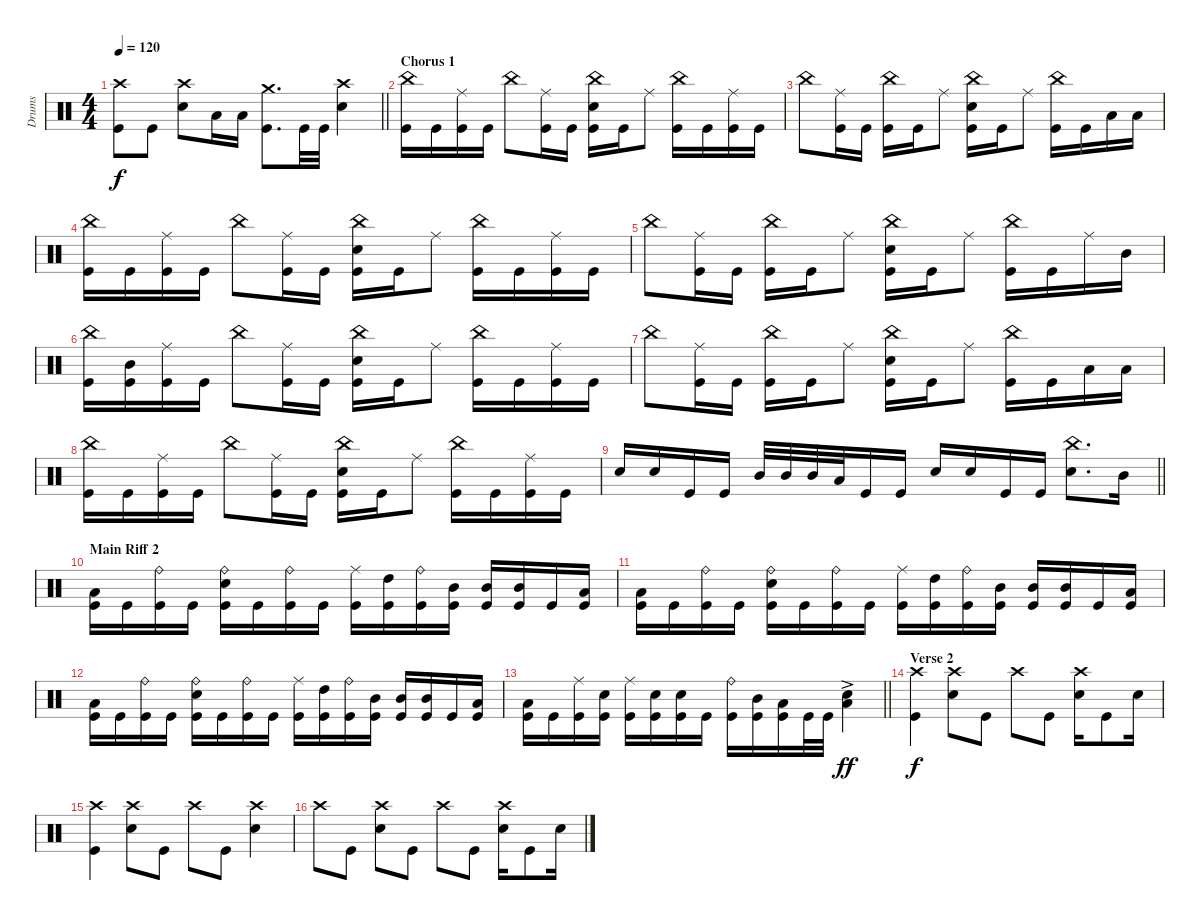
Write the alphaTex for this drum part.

\track ("Drums" "Drums") {instrument percussion}
\staff {score}
\articulation defaults
\ts (4 4)
\tempo 120
\clef neutral
\barLineRight lightlight
\ks c
("Crash high (hit)" "Kick (hit)").8{dy f} "Kick (hit)".8 ("Crash high (hit)" "Electric Snare (hit)").8 "Low Tom (hit)".16 "Low Tom (hit)".16 ("Crash medium (hit)" "Kick (hit)").8{d} "Kick (hit)".32 "Kick (hit)".32 ("Crash high (hit)" "Electric Snare (hit)").4 |
\section ("" "Chorus 1")
("China (hit)" "Kick (hit)").16 "Kick (hit)".16 ("Ride (middle)" "Kick (hit)").16 "Kick (hit)".16 "China (hit)".8 ("Ride (middle)" "Kick (hit)").16 "Kick (hit)".16 ("China (hit)" "Electric Snare (hit)" "Kick (hit)").16 "Kick (hit)".16 "Ride (middle)".8 ("China (hit)" "Kick (hit)").16 "Kick (hit)".16 ("Ride (middle)" "Kick (hit)").16 "Kick (hit)".16 |
"China (hit)".8 ("Ride (middle)" "Kick (hit)").16 "Kick (hit)".16 ("China (hit)" "Kick (hit)").16 "Kick (hit)".16 "Ride (middle)".8 ("China (hit)" "Electric Snare (hit)" "Kick (hit)").16 "Kick (hit)".16 "Ride (middle)".8 ("China (hit)" "Kick (hit)").16 "Kick (hit)".16 "Low Tom (hit)".16 "Low Tom (hit)".16 |
("China (hit)" "Kick (hit)").16 "Kick (hit)".16 ("Ride (middle)" "Kick (hit)").16 "Kick (hit)".16 "China (hit)".8 ("Ride (middle)" "Kick (hit)").16 "Kick (hit)".16 ("China (hit)" "Electric Snare (hit)" "Kick (hit)").16 "Kick (hit)".16 "Ride (middle)".8 ("China (hit)" "Kick (hit)").16 "Kick (hit)".16 ("Ride (middle)" "Kick (hit)").16 "Kick (hit)".16 |
"China (hit)".8 ("Ride (middle)" "Kick (hit)").16 "Kick (hit)".16 ("China (hit)" "Kick (hit)").16 "Kick (hit)".16 "Ride (middle)".8 ("China (hit)" "Electric Snare (hit)" "Kick (hit)").16 "Kick (hit)".16 "Ride (middle)".8 ("China (hit)" "Kick (hit)").16 "Kick (hit)".16 "Ride (middle)".16 "Mid Tom (hit)".16 |
("China (hit)" "Kick (hit)").16 ("Mid Tom (hit)" "Kick (hit)").16 ("Ride (middle)" "Kick (hit)").16 "Kick (hit)".16 "China (hit)".8 ("Ride (middle)" "Kick (hit)").16 "Kick (hit)".16 ("China (hit)" "Electric Snare (hit)" "Kick (hit)").16 "Kick (hit)".16 "Ride (middle)".8 ("China (hit)" "Kick (hit)").16 "Kick (hit)".16 ("Ride (middle)" "Kick (hit)").16 "Kick (hit)".16 |
"China (hit)".8 ("Ride (middle)" "Kick (hit)").16 "Kick (hit)".16 ("China (hit)" "Kick (hit)").16 "Kick (hit)".16 "Ride (middle)".8 ("China (hit)" "Electric Snare (hit)" "Kick (hit)").16 "Kick (hit)".16 "Ride (middle)".8 ("China (hit)" "Kick (hit)").16 "Kick (hit)".16 "Low Tom (hit)".16 "Low Tom (hit)".16 |
("China (hit)" "Kick (hit)").16 "Kick (hit)".16 ("Ride (middle)" "Kick (hit)").16 "Kick (hit)".16 "China (hit)".8 ("Ride (middle)" "Kick (hit)").16 "Kick (hit)".16 ("China (hit)" "Electric Snare (hit)" "Kick (hit)").16 "Kick (hit)".16 "Ride (middle)".8 ("China (hit)" "Kick (hit)").16 "Kick (hit)".16 ("Ride (middle)" "Kick (hit)").16 "Kick (hit)".16 |
\barLineRight lightlight "Electric Snare (hit)".16 "Electric Snare (hit)".16 "Kick (hit)".16 "Kick (hit)".16 "Mid Tom (hit)".32 "Mid Tom (hit)".32 "Mid Tom (hit)".32 "Low Tom (hit)".32 "Kick (hit)".16 "Kick (hit)".16 "Electric Snare (hit)".16 "Electric Snare (hit)".16 "Kick (hit)".16 "Kick (hit)".16
("China (hit)" "Electric Snare (hit)").8{d} "Mid Tom (hit)".16 |
\section ("" "Main Riff 2")
("Low Tom (hit)" "Kick (hit)").16 "Kick (hit)".16 ("Ride (bell)" "Kick (hit)").16 "Kick (hit)".16 ("Ride (bell)" "Electric Snare (hit)" "Kick (hit)").16 "Kick (hit)".16 ("Ride (bell)" "Kick (hit)").16 "Kick (hit)".16 ("Ride (middle)" "Kick (hit)").16 ("High Tom (hit)" "Kick (hit)").16 ("Ride (bell)" "Kick (hit)").16 ("Mid Tom (hit)" "Kick (hit)").16 ("Mid Tom (hit)" "Kick (hit)").16 ("Mid Tom (hit)" "Kick (hit)").16 "Kick (hit)".16 ("Low Tom (hit)" "Kick (hit)").16 |
("Low Tom (hit)" "Kick (hit)").16 "Kick (hit)".16 ("Ride (bell)" "Kick (hit)").16 "Kick (hit)".16 ("Ride (bell)" "Electric Snare (hit)" "Kick (hit)").16 "Kick (hit)".16 ("Ride (bell)" "Kick (hit)").16 "Kick (hit)".16 ("Ride (middle)" "Kick (hit)").16 ("High Tom (hit)" "Kick (hit)").16 ("Ride (bell)" "Kick (hit)").16 ("Mid Tom (hit)" "Kick (hit)").16 ("Mid Tom (hit)" "Kick (hit)").16 ("Mid Tom (hit)" "Kick (hit)").16 "Kick (hit)".16 ("Low Tom (hit)" "Kick (hit)").16 |
("Low Tom (hit)" "Kick (hit)").16 "Kick (hit)".16 ("Ride (bell)" "Kick (hit)").16 "Kick (hit)".16 ("Ride (bell)" "Electric Snare (hit)" "Kick (hit)").16 "Kick (hit)".16 ("Ride (bell)" "Kick (hit)").16 "Kick (hit)".16 ("Ride (middle)" "Kick (hit)").16 ("High Tom (hit)" "Kick (hit)").16 ("Ride (bell)" "Kick (hit)").16 ("Mid Tom (hit)" "Kick (hit)").16 ("Mid Tom (hit)" "Kick (hit)").16 ("Mid Tom (hit)" "Kick (hit)").16 "Kick (hit)".16 ("Low Tom (hit)" "Kick (hit)").16 |
\barLineRight lightlight
("Low Tom (hit)" "Kick (hit)").16 "Kick (hit)".16 ("Ride (middle)" "Kick (hit)").16 ("Electric Snare (hit)" "Kick (hit)").16 ("Ride (middle)" "Kick (hit)").16 ("Electric Snare (hit)" "Kick (hit)").16 ("Electric Snare (hit)" "Kick (hit)").16 "Kick (hit)".16 ("Ride (bell)" "Kick (hit)").16 ("Mid Tom (hit)" "Kick (hit)").16 ("Low Tom (hit)" "Kick (hit)").16 "Kick (hit)".32 "Kick (hit)".32 ("Electric Snare (hit)"{ac} "Low Tom (hit)").4{dy ff} |
\section ("" "Verse 2")
("Crash high (hit)" "Kick (hit)").4{dy f} ("Crash high (hit)" "Electric Snare (hit)").8 "Kick (hit)".8 "Crash high (hit)".8 "Kick (hit)".8 ("Crash high (hit)" "Electric Snare (hit)").16 "Kick (hit)".8 "Electric Snare (hit)".16 |
("Crash high (hit)" "Kick (hit)").4 ("Crash high (hit)" "Electric Snare (hit)").8 "Kick (hit)".8 "Crash high (hit)".8 "Kick (hit)".8 ("Crash high (hit)" "Electric Snare (hit)").4 |
"Crash high (hit)".8 "Kick (hit)".8 ("Crash high (hit)" "Electric Snare (hit)").8 "Kick (hit)".8 "Crash high (hit)".8 "Kick (hit)".8 ("Crash high (hit)" "Electric Snare (hit)").16 "Kick (hit)".8 "Electric Snare (hit)".16
